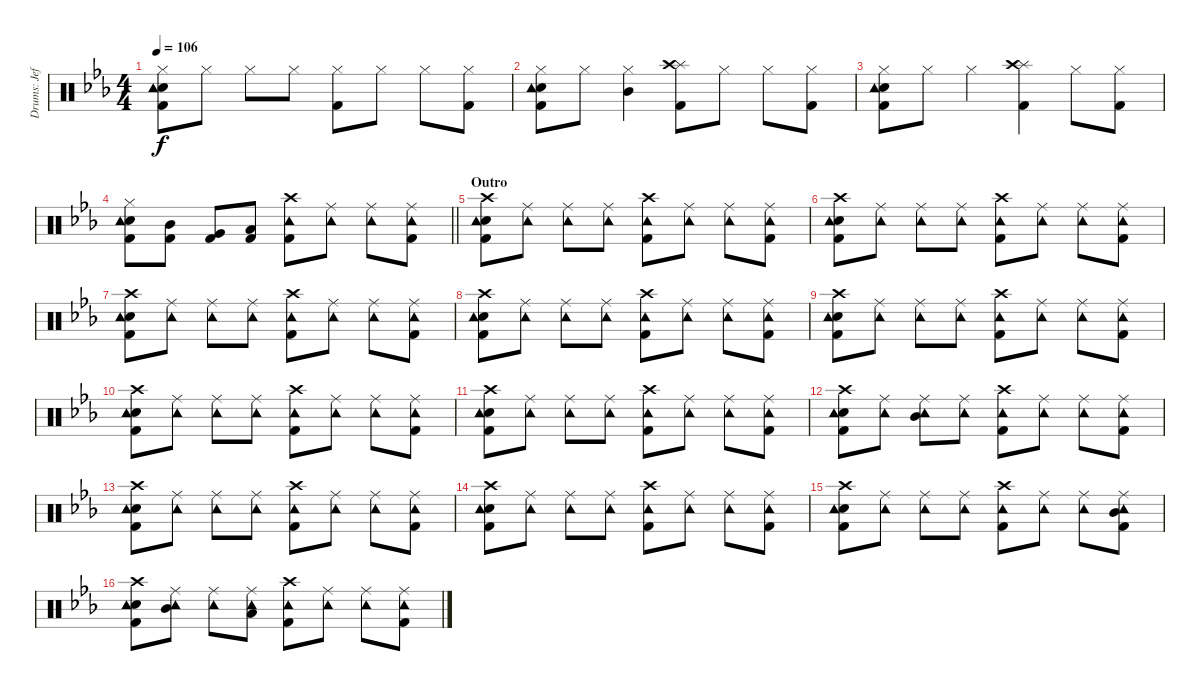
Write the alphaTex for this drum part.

\track ("Drums: Jeff" "Drums: Jef") {instrument percussion}
\staff {score}
\articulation defaults
\ts (4 4)
\tempo 106
\clef neutral
\ks eb
("Hi-Hat (closed)" "Snare (hit) 2" "Tambourine (hit)" "Kick (hit) 2").8{dy f} "Hi-Hat (closed)".8 "Hi-Hat (closed)".8 "Hi-Hat (closed)".8 ("Hi-Hat (closed)" "Kick (hit) 2").8 "Hi-Hat (closed)".8 "Hi-Hat (closed)".8 ("Hi-Hat (closed)" "Kick (hit) 2").8 |
("Hi-Hat (closed)" "Snare (hit) 2" "Tambourine (hit)" "Kick (hit) 2").8 "Hi-Hat (closed)".8 ("Hi-Hat (closed)" "Mid Tom (hit)").4 ("Splash (hit)" "Crash high (hit)" "Kick (hit) 2").8 "Hi-Hat (closed)".8 "Hi-Hat (closed)".8 ("Hi-Hat (closed)" "Kick (hit) 2").8 |
("Hi-Hat (closed)" "Snare (hit) 2" "Tambourine (hit)" "Kick (hit) 2").8 "Hi-Hat (closed)".8 "Hi-Hat (closed)".4 ("Splash (hit)" "Crash high (hit)" "Kick (hit) 2").4 "Hi-Hat (closed)".8 ("Hi-Hat (closed)" "Kick (hit) 2").8 |
\barLineRight lightlight
("Hi-Hat (closed)" "Snare (hit) 2" "Tambourine (hit)" "Kick (hit) 2").8 ("Mid Tom (hit)" "Kick (hit) 2").8 ("Very Low Tom (hit)" "Kick (hit) 2").8 ("Low Floor Tom (hit)" "Kick (hit) 2").8 ("Crash high (hit)" "Tambourine (hit)" "Kick (hit) 2").8 ("Ride (middle)" "Tambourine (hit)").8 ("Ride (middle)" "Tambourine (hit)").8 ("Ride (middle)" "Tambourine (hit)" "Kick (hit) 2").8 |
\section ("" "Outro")
("Crash high (hit)" "Snare (hit) 2" "Tambourine (hit)" "Kick (hit) 2").8 ("Ride (middle)" "Tambourine (hit)").8 ("Ride (middle)" "Tambourine (hit)").8 ("Ride (middle)" "Tambourine (hit)").8 ("Crash high (hit)" "Tambourine (hit)" "Kick (hit) 2").8 ("Ride (middle)" "Tambourine (hit)").8 ("Ride (middle)" "Tambourine (hit)").8 ("Ride (middle)" "Tambourine (hit)" "Kick (hit) 2").8 |
("Crash high (hit)" "Snare (hit) 2" "Tambourine (hit)" "Kick (hit) 2").8 ("Ride (middle)" "Tambourine (hit)").8 ("Ride (middle)" "Tambourine (hit)").8 ("Ride (middle)" "Tambourine (hit)").8 ("Crash high (hit)" "Tambourine (hit)" "Kick (hit) 2").8 ("Ride (middle)" "Tambourine (hit)").8 ("Ride (middle)" "Tambourine (hit)").8 ("Ride (middle)" "Tambourine (hit)" "Kick (hit) 2").8 |
("Crash high (hit)" "Snare (hit) 2" "Tambourine (hit)" "Kick (hit) 2").8 ("Ride (middle)" "Tambourine (hit)").8 ("Ride (middle)" "Tambourine (hit)").8 ("Ride (middle)" "Tambourine (hit)").8 ("Crash high (hit)" "Tambourine (hit)" "Kick (hit) 2").8 ("Ride (middle)" "Tambourine (hit)").8 ("Ride (middle)" "Tambourine (hit)").8 ("Ride (middle)" "Tambourine (hit)" "Kick (hit) 2").8 |
("Crash high (hit)" "Snare (hit) 2" "Tambourine (hit)" "Kick (hit) 2").8 ("Ride (middle)" "Tambourine (hit)").8 ("Ride (middle)" "Tambourine (hit)").8 ("Ride (middle)" "Tambourine (hit)").8 ("Crash high (hit)" "Tambourine (hit)" "Kick (hit) 2").8 ("Ride (middle)" "Tambourine (hit)").8 ("Ride (middle)" "Tambourine (hit)").8 ("Ride (middle)" "Tambourine (hit)" "Kick (hit) 2").8 |
("Crash high (hit)" "Snare (hit) 2" "Tambourine (hit)" "Kick (hit) 2").8 ("Ride (middle)" "Tambourine (hit)").8 ("Ride (middle)" "Tambourine (hit)").8 ("Ride (middle)" "Tambourine (hit)").8 ("Crash high (hit)" "Tambourine (hit)" "Kick (hit) 2").8 ("Ride (middle)" "Tambourine (hit)").8 ("Ride (middle)" "Tambourine (hit)").8 ("Ride (middle)" "Tambourine (hit)" "Kick (hit) 2").8 |
("Crash high (hit)" "Snare (hit) 2" "Tambourine (hit)" "Kick (hit) 2").8 ("Ride (middle)" "Tambourine (hit)").8 ("Ride (middle)" "Tambourine (hit)").8 ("Ride (middle)" "Tambourine (hit)").8 ("Crash high (hit)" "Tambourine (hit)" "Kick (hit) 2").8 ("Ride (middle)" "Tambourine (hit)").8 ("Ride (middle)" "Tambourine (hit)").8 ("Ride (middle)" "Tambourine (hit)" "Kick (hit) 2").8 |
("Crash high (hit)" "Snare (hit) 2" "Tambourine (hit)" "Kick (hit) 2").8 ("Ride (middle)" "Tambourine (hit)").8 ("Ride (middle)" "Tambourine (hit)").8 ("Ride (middle)" "Tambourine (hit)").8 ("Crash high (hit)" "Tambourine (hit)" "Kick (hit) 2").8 ("Ride (middle)" "Tambourine (hit)").8 ("Ride (middle)" "Tambourine (hit)").8 ("Ride (middle)" "Tambourine (hit)" "Kick (hit) 2").8 |
("Crash high (hit)" "Snare (hit) 2" "Tambourine (hit)" "Kick (hit) 2").8 ("Ride (middle)" "Tambourine (hit)").8 ("Ride (middle)" "Tambourine (hit)" "Mid Tom (hit)").8 ("Ride (middle)" "Tambourine (hit)").8 ("Crash high (hit)" "Tambourine (hit)" "Kick (hit) 2").8 ("Ride (middle)" "Tambourine (hit)").8 ("Ride (middle)" "Tambourine (hit)").8 ("Ride (middle)" "Tambourine (hit)" "Kick (hit) 2").8 |
("Crash high (hit)" "Snare (hit) 2" "Tambourine (hit)" "Kick (hit) 2").8 ("Ride (middle)" "Tambourine (hit)").8 ("Ride (middle)" "Tambourine (hit)").8 ("Ride (middle)" "Tambourine (hit)").8 ("Crash high (hit)" "Tambourine (hit)" "Kick (hit) 2").8 ("Ride (middle)" "Tambourine (hit)").8 ("Ride (middle)" "Tambourine (hit)").8 ("Ride (middle)" "Tambourine (hit)" "Kick (hit) 2").8 |
("Crash high (hit)" "Snare (hit) 2" "Tambourine (hit)" "Kick (hit) 2").8 ("Ride (middle)" "Tambourine (hit)").8 ("Ride (middle)" "Tambourine (hit)").8 ("Ride (middle)" "Tambourine (hit)").8 ("Crash high (hit)" "Tambourine (hit)" "Kick (hit) 2").8 ("Ride (middle)" "Tambourine (hit)").8 ("Ride (middle)" "Tambourine (hit)").8 ("Ride (middle)" "Tambourine (hit)" "Kick (hit) 2").8 |
("Crash high (hit)" "Snare (hit) 2" "Tambourine (hit)" "Kick (hit) 2").8 ("Ride (middle)" "Tambourine (hit)").8 ("Ride (middle)" "Tambourine (hit)").8 ("Ride (middle)" "Tambourine (hit)").8 ("Crash high (hit)" "Tambourine (hit)" "Kick (hit) 2").8 ("Ride (middle)" "Tambourine (hit)").8 ("Ride (middle)" "Tambourine (hit)").8 ("Ride (middle)" "Tambourine (hit)" "Mid Tom (hit)" "Kick (hit) 2").8 |
("Crash high (hit)" "Snare (hit) 2" "Tambourine (hit)" "Kick (hit) 2").8 ("Ride (middle)" "Tambourine (hit)" "Mid Tom (hit)").8 ("Ride (middle)" "Tambourine (hit)").8 ("Ride (middle)" "Tambourine (hit)" "Low Tom (hit)").8 ("Crash high (hit)" "Tambourine (hit)" "Kick (hit) 2").8 ("Ride (middle)" "Tambourine (hit)").8 ("Ride (middle)" "Tambourine (hit)").8 ("Ride (middle)" "Tambourine (hit)" "Kick (hit) 2").8
